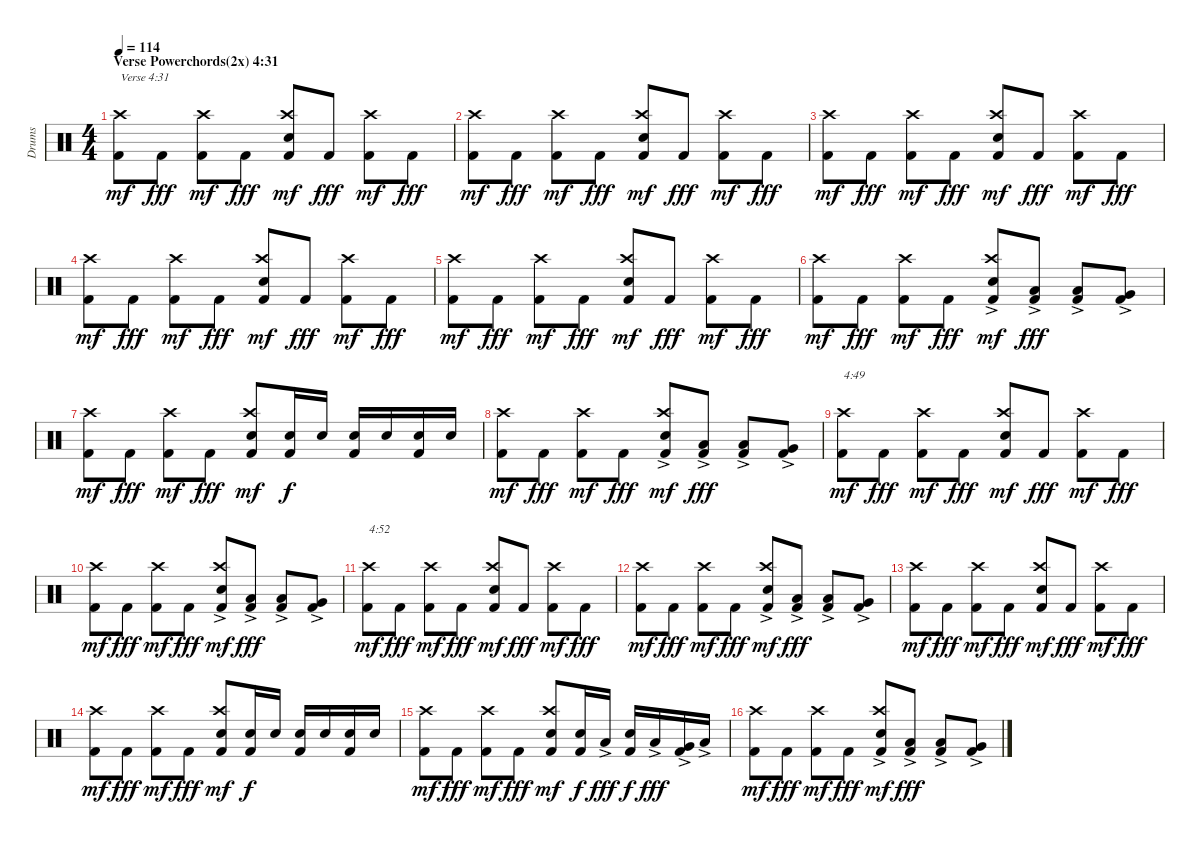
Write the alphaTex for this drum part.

\track ("Drums" "Drums") {instrument percussion}
\staff {score}
\articulation defaults
\ts (4 4)
\section ("" "Verse Powerchords(2x) 4:31")
\tempo 114
\clef neutral
\ks c
("Kick (hit) 2" "Crash high (hit)").8{txt "Verse 4:31" dy mf} "Kick (hit) 2".8{dy fff} ("Kick (hit) 2" "Crash high (hit)").8{dy mf} "Kick (hit) 2".8{dy fff} ("Kick (hit) 2" "Electric Snare (hit)" "Crash high (hit)").8{dy mf} "Kick (hit) 2".8{dy fff} ("Kick (hit) 2" "Crash high (hit)").8{dy mf} "Kick (hit) 2".8{dy fff} |
("Kick (hit) 2" "Crash high (hit)").8{dy mf} "Kick (hit) 2".8{dy fff} ("Kick (hit) 2" "Crash high (hit)").8{dy mf} "Kick (hit) 2".8{dy fff} ("Kick (hit) 2" "Electric Snare (hit)" "Crash high (hit)").8{dy mf} "Kick (hit) 2".8{dy fff} ("Kick (hit) 2" "Crash high (hit)").8{dy mf} "Kick (hit) 2".8{dy fff} |
("Kick (hit) 2" "Crash high (hit)").8{dy mf} "Kick (hit) 2".8{dy fff} ("Kick (hit) 2" "Crash high (hit)").8{dy mf} "Kick (hit) 2".8{dy fff} ("Kick (hit) 2" "Electric Snare (hit)" "Crash high (hit)").8{dy mf} "Kick (hit) 2".8{dy fff} ("Kick (hit) 2" "Crash high (hit)").8{dy mf} "Kick (hit) 2".8{dy fff} |
("Kick (hit) 2" "Crash high (hit)").8{dy mf} "Kick (hit) 2".8{dy fff} ("Kick (hit) 2" "Crash high (hit)").8{dy mf} "Kick (hit) 2".8{dy fff} ("Kick (hit) 2" "Electric Snare (hit)" "Crash high (hit)").8{dy mf} "Kick (hit) 2".8{dy fff} ("Kick (hit) 2" "Crash high (hit)").8{dy mf} "Kick (hit) 2".8{dy fff} |
("Kick (hit) 2" "Crash high (hit)").8{dy mf} "Kick (hit) 2".8{dy fff} ("Kick (hit) 2" "Crash high (hit)").8{dy mf} "Kick (hit) 2".8{dy fff} ("Kick (hit) 2" "Electric Snare (hit)" "Crash high (hit)").8{dy mf} "Kick (hit) 2".8{dy fff} ("Kick (hit) 2" "Crash high (hit)").8{dy mf} "Kick (hit) 2".8{dy fff} |
("Kick (hit) 2" "Crash high (hit)").8{dy mf} "Kick (hit) 2".8{dy fff} ("Kick (hit) 2" "Crash high (hit)").8{dy mf} "Kick (hit) 2".8{dy fff} ("Kick (hit) 2" "Electric Snare (hit)"{ac} "Crash high (hit)").8{dy mf} ("Kick (hit) 2" "Low Tom (hit)"{ac}).8{dy fff} ("Kick (hit) 2" "Low Tom (hit)"{ac}).8 ("Kick (hit) 2" "Very Low Tom (hit)"{ac}).8 |
("Kick (hit) 2" "Crash high (hit)").8{dy mf} "Kick (hit) 2".8{dy fff} ("Kick (hit) 2" "Crash high (hit)").8{dy mf} "Kick (hit) 2".8{dy fff} ("Kick (hit) 2" "Electric Snare (hit)" "Crash high (hit)").8{dy mf} ("Kick (hit) 2" "Electric Snare (hit)").16{dy f} "Electric Snare (hit)".16 ("Kick (hit) 2" "Electric Snare (hit)").16 "Electric Snare (hit)".16 ("Kick (hit) 2" "Electric Snare (hit)").16 "Electric Snare (hit)".16 |
("Kick (hit) 2" "Crash high (hit)").8{dy mf} "Kick (hit) 2".8{dy fff} ("Kick (hit) 2" "Crash high (hit)").8{dy mf} "Kick (hit) 2".8{dy fff} ("Kick (hit) 2" "Electric Snare (hit)"{ac} "Crash high (hit)").8{dy mf} ("Kick (hit) 2" "Low Tom (hit)"{ac}).8{dy fff} ("Kick (hit) 2" "Low Tom (hit)"{ac}).8 ("Kick (hit) 2" "Very Low Tom (hit)"{ac}).8 |
("Kick (hit) 2" "Crash high (hit)").8{txt "4:49" dy mf} "Kick (hit) 2".8{dy fff} ("Kick (hit) 2" "Crash high (hit)").8{dy mf} "Kick (hit) 2".8{dy fff} ("Kick (hit) 2" "Electric Snare (hit)" "Crash high (hit)").8{dy mf} "Kick (hit) 2".8{dy fff} ("Kick (hit) 2" "Crash high (hit)").8{dy mf} "Kick (hit) 2".8{dy fff} |
("Kick (hit) 2" "Crash high (hit)").8{dy mf} "Kick (hit) 2".8{dy fff} ("Kick (hit) 2" "Crash high (hit)").8{dy mf} "Kick (hit) 2".8{dy fff} ("Kick (hit) 2" "Electric Snare (hit)"{ac} "Crash high (hit)").8{dy mf} ("Kick (hit) 2" "Low Tom (hit)"{ac}).8{dy fff} ("Kick (hit) 2" "Low Tom (hit)"{ac}).8 ("Kick (hit) 2" "Very Low Tom (hit)"{ac}).8 |
("Kick (hit) 2" "Crash high (hit)").8{txt "4:52" dy mf} "Kick (hit) 2".8{dy fff} ("Kick (hit) 2" "Crash high (hit)").8{dy mf} "Kick (hit) 2".8{dy fff} ("Kick (hit) 2" "Electric Snare (hit)" "Crash high (hit)").8{dy mf} "Kick (hit) 2".8{dy fff} ("Kick (hit) 2" "Crash high (hit)").8{dy mf} "Kick (hit) 2".8{dy fff} |
("Kick (hit) 2" "Crash high (hit)").8{dy mf} "Kick (hit) 2".8{dy fff} ("Kick (hit) 2" "Crash high (hit)").8{dy mf} "Kick (hit) 2".8{dy fff} ("Kick (hit) 2" "Electric Snare (hit)"{ac} "Crash high (hit)").8{dy mf} ("Kick (hit) 2" "Low Tom (hit)"{ac}).8{dy fff} ("Kick (hit) 2" "Low Tom (hit)"{ac}).8 ("Kick (hit) 2" "Very Low Tom (hit)"{ac}).8 |
("Kick (hit) 2" "Crash high (hit)").8{dy mf} "Kick (hit) 2".8{dy fff} ("Kick (hit) 2" "Crash high (hit)").8{dy mf} "Kick (hit) 2".8{dy fff} ("Kick (hit) 2" "Electric Snare (hit)" "Crash high (hit)").8{dy mf} "Kick (hit) 2".8{dy fff} ("Kick (hit) 2" "Crash high (hit)").8{dy mf} "Kick (hit) 2".8{dy fff} |
("Kick (hit) 2" "Crash high (hit)").8{dy mf} "Kick (hit) 2".8{dy fff} ("Kick (hit) 2" "Crash high (hit)").8{dy mf} "Kick (hit) 2".8{dy fff} ("Kick (hit) 2" "Electric Snare (hit)" "Crash high (hit)").8{dy mf} ("Kick (hit) 2" "Electric Snare (hit)").16{dy f} "Electric Snare (hit)".16 ("Kick (hit) 2" "Electric Snare (hit)").16 "Electric Snare (hit)".16 ("Kick (hit) 2" "Electric Snare (hit)").16 "Electric Snare (hit)".16 |
("Kick (hit) 2" "Crash high (hit)").8{dy mf} "Kick (hit) 2".8{dy fff} ("Kick (hit) 2" "Crash high (hit)").8{dy mf} "Kick (hit) 2".8{dy fff} ("Kick (hit) 2" "Electric Snare (hit)" "Crash high (hit)").8{dy mf} ("Kick (hit) 2" "Electric Snare (hit)").16{dy f} "Low Tom (hit)"{ac}.16{dy fff} ("Kick (hit) 2" "Electric Snare (hit)").16{dy f} "Low Tom (hit)"{ac}.16{dy fff} ("Kick (hit) 2" "Very Low Tom (hit)"{ac}).16 "Low Floor Tom (hit)"{ac}.16 |
("Kick (hit) 2" "Crash high (hit)").8{dy mf} "Kick (hit) 2".8{dy fff} ("Kick (hit) 2" "Crash high (hit)").8{dy mf} "Kick (hit) 2".8{dy fff} ("Kick (hit) 2" "Electric Snare (hit)"{ac} "Crash high (hit)").8{dy mf} ("Kick (hit) 2" "Low Tom (hit)"{ac}).8{dy fff} ("Kick (hit) 2" "Low Tom (hit)"{ac}).8 ("Kick (hit) 2" "Very Low Tom (hit)"{ac}).8
